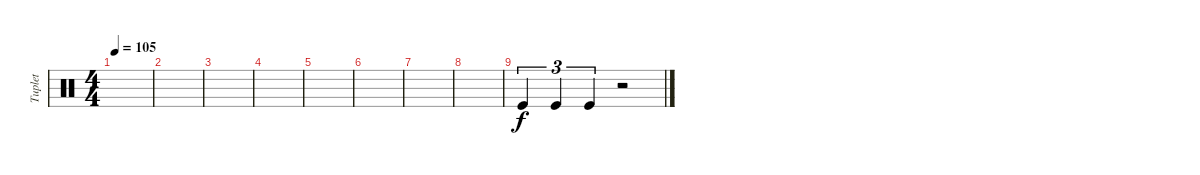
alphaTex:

\track ("Tuplet" "Tuplet") {instrument percussion}
\staff {score}
\articulation defaults
\ts (4 4)
\tempo 105
\clef neutral
\ks c
|
|
|
|
|
|
|
|
"Kick (hit)".4{tu (3 2)} "Kick (hit)".4{tu (3 2)} "Kick (hit)".4{tu (3 2)} r.2
